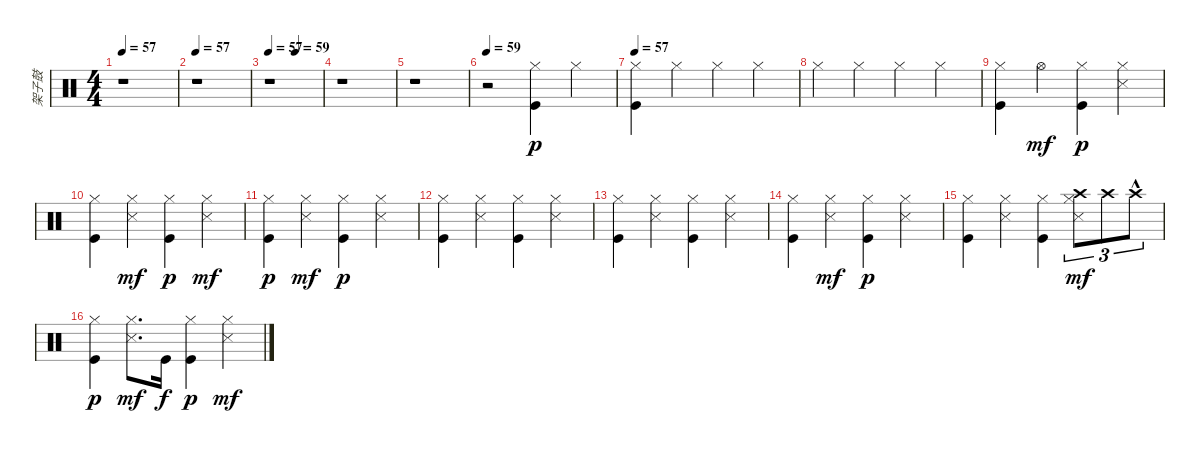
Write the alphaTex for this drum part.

\track ("架子鼓" "架子鼓") {instrument percussion}
\staff {score}
\articulation defaults
\ts (4 4)
\tempo 57
\clef neutral
\ks c
r.1{dy p} |
\tempo 57
r.1 |
\tempo 57
\tempo (59 0.5)
r.1 |
r.1 |
r.1 |
\tempo 59
r.2 ("Kick (hit)" "Hi-Hat (closed)").4 "Hi-Hat (closed)".4 |
\tempo 57
("Kick (hit)" "Hi-Hat (closed)").4 "Hi-Hat (closed)".4 "Hi-Hat (closed)".4 "Hi-Hat (closed)".4 |
"Hi-Hat (closed)".4 "Hi-Hat (closed)".4 "Hi-Hat (closed)".4 "Hi-Hat (closed)".4 |
("Hi-Hat (closed)" "Kick (hit)").4 "Hi-Hat (open)".4{dy mf} ("Hi-Hat (closed)" "Kick (hit)").4{dy p} ("Metronome (hit)" "Hi-Hat (closed)").4 |
("Kick (hit)" "Hi-Hat (closed)").4 ("Hi-Hat (closed)" "Metronome (hit)").4{dy mf} ("Kick (hit)" "Hi-Hat (closed)").4{dy p} ("Hi-Hat (closed)" "Metronome (hit)").4{dy mf} |
("Kick (hit)" "Hi-Hat (closed)").4{dy p} ("Hi-Hat (closed)" "Metronome (hit)").4{dy mf} ("Kick (hit)" "Hi-Hat (closed)").4{dy p} ("Metronome (hit)" "Hi-Hat (closed)").4 |
("Kick (hit)" "Hi-Hat (closed)").4 ("Metronome (hit)" "Hi-Hat (closed)").4 ("Hi-Hat (closed)" "Kick (hit)").4 ("Metronome (hit)" "Hi-Hat (closed)").4 |
("Hi-Hat (closed)" "Kick (hit)").4 ("Metronome (hit)" "Hi-Hat (closed)").4 ("Kick (hit)" "Hi-Hat (closed)").4 ("Metronome (hit)" "Hi-Hat (closed)").4 |
("Kick (hit)" "Hi-Hat (closed)").4 ("Hi-Hat (closed)" "Metronome (hit)").4{dy mf} ("Hi-Hat (closed)" "Kick (hit)").4{dy p} ("Metronome (hit)" "Hi-Hat (closed)").4 |
("Hi-Hat (closed)" "Kick (hit)").4 ("Metronome (hit)" "Hi-Hat (closed)").4 ("Hi-Hat (closed)" "Kick (hit)").4 ("Hi-Hat (closed)" "Metronome (hit)" "Crash high (hit)").8{tu (3 2) dy mf} "Crash high (hit)".8{tu (3 2)} "Crash high (hit)"{hac}.8{tu (3 2)} |
("Kick (hit)" "Hi-Hat (closed)").4{dy p} ("Hi-Hat (closed)" "Metronome (hit)").8{d dy mf} "Kick (hit)".16{dy f} ("Hi-Hat (closed)" "Kick (hit)").4{dy p} ("Hi-Hat (closed)" "Metronome (hit)").4{dy mf}
